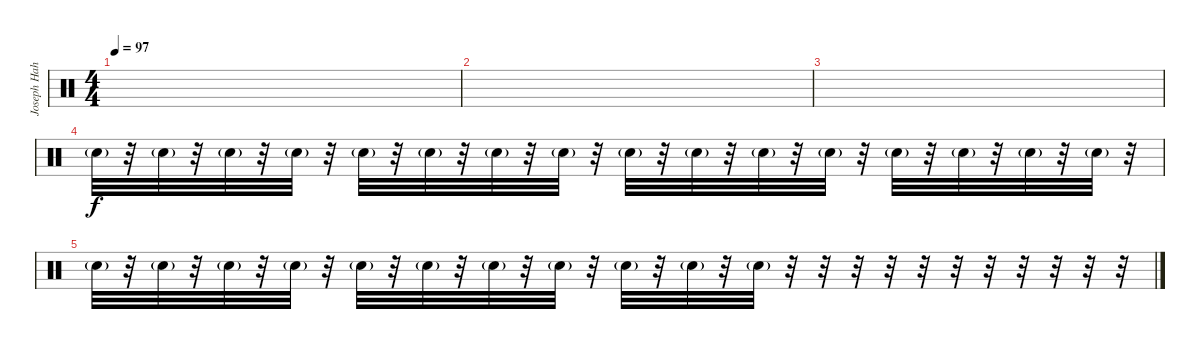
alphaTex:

\track ("Joseph Hahn ('Slap' sound)" "Joseph Hah") {instrument percussion}
\staff {score}
\articulation defaults
\ts (4 4)
\tempo 97
\clef neutral
\ks c
|
|
|
"Electric Snare (hit)"{g}.32 r.32 "Electric Snare (hit)"{g}.32 r.32 "Electric Snare (hit)"{g}.32 r.32 "Electric Snare (hit)"{g}.32 r.32 "Electric Snare (hit)"{g}.32 r.32 "Electric Snare (hit)"{g}.32 r.32 "Electric Snare (hit)"{g}.32 r.32 "Electric Snare (hit)"{g}.32 r.32 "Electric Snare (hit)"{g}.32 r.32 "Electric Snare (hit)"{g}.32 r.32 "Electric Snare (hit)"{g}.32 r.32 "Electric Snare (hit)"{g}.32 r.32 "Electric Snare (hit)"{g}.32 r.32 "Electric Snare (hit)"{g}.32 r.32 "Electric Snare (hit)"{g}.32 r.32 "Electric Snare (hit)"{g}.32 r.32 |
"Electric Snare (hit)"{g}.32 r.32 "Electric Snare (hit)"{g}.32 r.32 "Electric Snare (hit)"{g}.32 r.32 "Electric Snare (hit)"{g}.32 r.32 "Electric Snare (hit)"{g}.32 r.32 "Electric Snare (hit)"{g}.32 r.32 "Electric Snare (hit)"{g}.32 r.32 "Electric Snare (hit)"{g}.32 r.32 "Electric Snare (hit)"{g}.32 r.32 "Electric Snare (hit)"{g}.32 r.32 "Electric Snare (hit)"{g}.32 r.32 r.32 r.32 r.32 r.32 r.32 r.32 r.32 r.32 r.32 r.32
